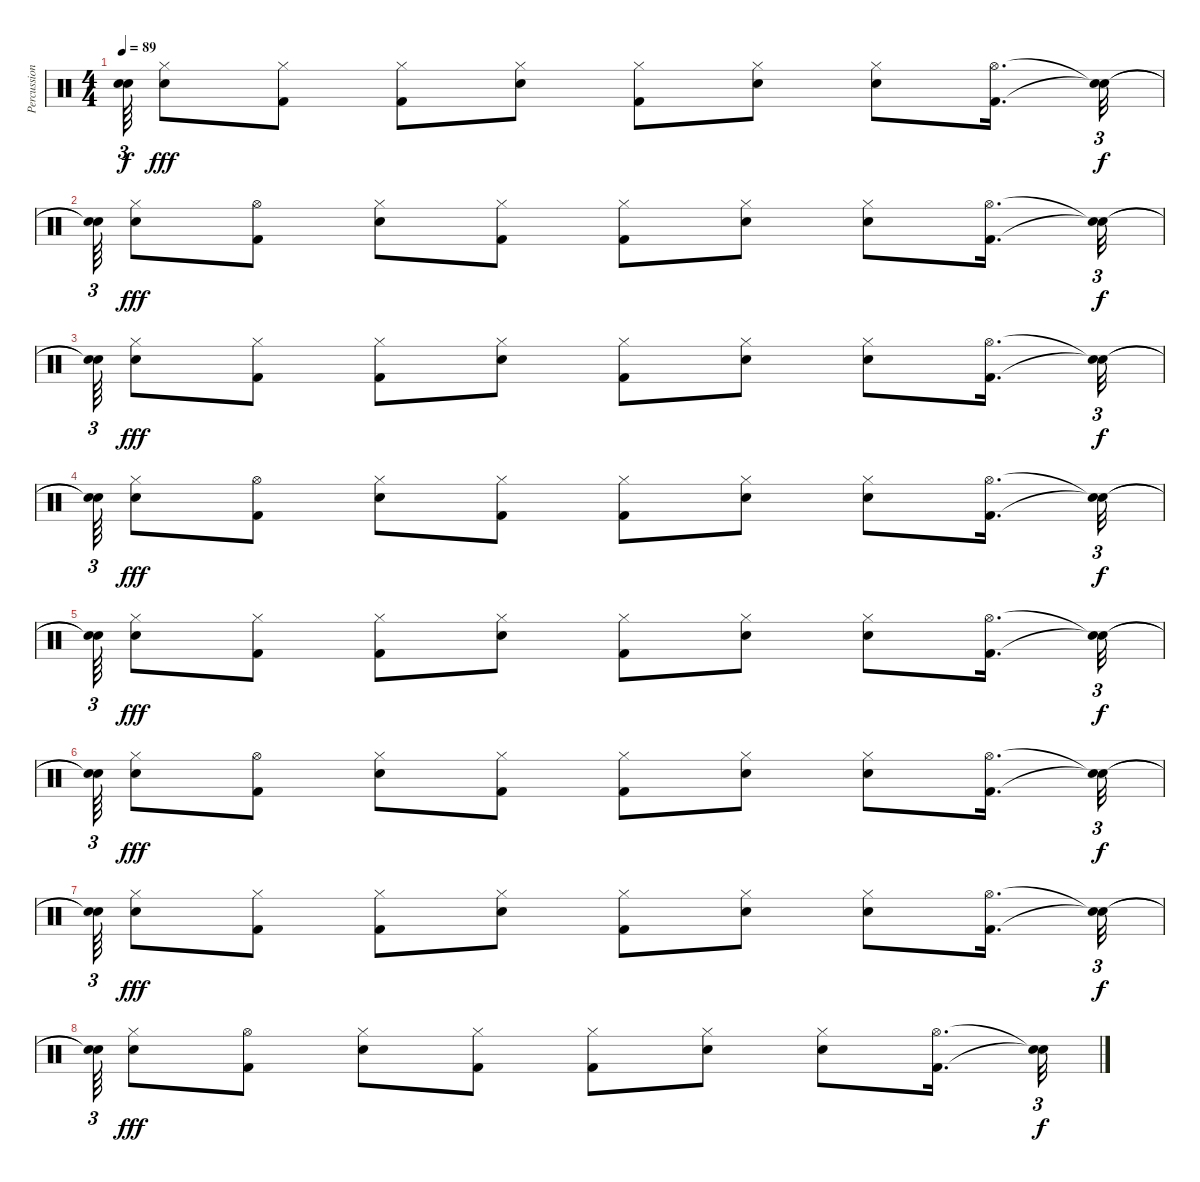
\track ("Percussioni" "Percussion") {instrument percussion}
\staff {score}
\articulation defaults
\ts (4 4)
\tempo 89
\clef neutral
\ks c
("Snare (hit)"{t} "Snare (hit)"{t}).64{tu (3 2) dy f} ("Hi-Hat (closed)" "Snare (hit) 2").8{dy fff} ("Hi-Hat (closed)" "Kick (hit) 2").8 ("Hi-Hat (closed)" "Kick (hit) 2").8 ("Hi-Hat (closed)" "Snare (hit) 2").8 ("Hi-Hat (closed)" "Kick (hit) 2").8 ("Hi-Hat (closed)" "Snare (hit) 2").8 ("Hi-Hat (closed)" "Snare (hit) 2").8 ("Hi-Hat (open)" "Kick (hit) 2").16{d} ("Snare (hit)"{t} "Snare (hit)"{t}).32{tu (3 2) dy f} |
("Snare (hit)"{t} "Snare (hit)"{t}).64{tu (3 2)} ("Hi-Hat (closed)" "Snare (hit) 2").8{dy fff} ("Hi-Hat (open)" "Kick (hit) 2").8 ("Hi-Hat (closed)" "Snare (hit) 2").8 ("Hi-Hat (closed)" "Kick (hit) 2").8 ("Hi-Hat (closed)" "Kick (hit) 2").8 ("Hi-Hat (closed)" "Snare (hit) 2").8 ("Hi-Hat (closed)" "Snare (hit) 2").8 ("Hi-Hat (open)" "Kick (hit) 2").16{d} ("Snare (hit)"{t} "Snare (hit)"{t}).32{tu (3 2) dy f} |
("Snare (hit)"{t} "Snare (hit)"{t}).64{tu (3 2)} ("Hi-Hat (closed)" "Snare (hit) 2").8{dy fff} ("Hi-Hat (closed)" "Kick (hit) 2").8 ("Hi-Hat (closed)" "Kick (hit) 2").8 ("Hi-Hat (closed)" "Snare (hit) 2").8 ("Hi-Hat (closed)" "Kick (hit) 2").8 ("Hi-Hat (closed)" "Snare (hit) 2").8 ("Hi-Hat (closed)" "Snare (hit) 2").8 ("Hi-Hat (open)" "Kick (hit) 2").16{d} ("Snare (hit)"{t} "Snare (hit)"{t}).32{tu (3 2) dy f} |
("Snare (hit)"{t} "Snare (hit)"{t}).64{tu (3 2)} ("Hi-Hat (closed)" "Snare (hit) 2").8{dy fff} ("Hi-Hat (open)" "Kick (hit) 2").8 ("Hi-Hat (closed)" "Snare (hit) 2").8 ("Hi-Hat (closed)" "Kick (hit) 2").8 ("Hi-Hat (closed)" "Kick (hit) 2").8 ("Hi-Hat (closed)" "Snare (hit) 2").8 ("Hi-Hat (closed)" "Snare (hit) 2").8 ("Hi-Hat (open)" "Kick (hit) 2").16{d} ("Snare (hit)"{t} "Snare (hit)"{t}).32{tu (3 2) dy f} |
("Snare (hit)"{t} "Snare (hit)"{t}).64{tu (3 2)} ("Hi-Hat (closed)" "Snare (hit) 2").8{dy fff} ("Hi-Hat (closed)" "Kick (hit) 2").8 ("Hi-Hat (closed)" "Kick (hit) 2").8 ("Hi-Hat (closed)" "Snare (hit) 2").8 ("Hi-Hat (closed)" "Kick (hit) 2").8 ("Hi-Hat (closed)" "Snare (hit) 2").8 ("Hi-Hat (closed)" "Snare (hit) 2").8 ("Hi-Hat (open)" "Kick (hit) 2").16{d} ("Snare (hit)"{t} "Snare (hit)"{t}).32{tu (3 2) dy f} |
("Snare (hit)"{t} "Snare (hit)"{t}).64{tu (3 2)} ("Hi-Hat (closed)" "Snare (hit) 2").8{dy fff} ("Hi-Hat (open)" "Kick (hit) 2").8 ("Hi-Hat (closed)" "Snare (hit) 2").8 ("Hi-Hat (closed)" "Kick (hit) 2").8 ("Hi-Hat (closed)" "Kick (hit) 2").8 ("Hi-Hat (closed)" "Snare (hit) 2").8 ("Hi-Hat (closed)" "Snare (hit) 2").8 ("Hi-Hat (open)" "Kick (hit) 2").16{d} ("Snare (hit)"{t} "Snare (hit)"{t}).32{tu (3 2) dy f} |
("Snare (hit)"{t} "Snare (hit)"{t}).64{tu (3 2)} ("Hi-Hat (closed)" "Snare (hit) 2").8{dy fff} ("Hi-Hat (closed)" "Kick (hit) 2").8 ("Hi-Hat (closed)" "Kick (hit) 2").8 ("Hi-Hat (closed)" "Snare (hit) 2").8 ("Hi-Hat (closed)" "Kick (hit) 2").8 ("Hi-Hat (closed)" "Snare (hit) 2").8 ("Hi-Hat (closed)" "Snare (hit) 2").8 ("Hi-Hat (open)" "Kick (hit) 2").16{d} ("Snare (hit)"{t} "Snare (hit)"{t}).32{tu (3 2) dy f} |
("Snare (hit)"{t} "Snare (hit)"{t}).64{tu (3 2)} ("Hi-Hat (closed)" "Snare (hit) 2").8{dy fff} ("Hi-Hat (open)" "Kick (hit) 2").8 ("Hi-Hat (closed)" "Snare (hit) 2").8 ("Hi-Hat (closed)" "Kick (hit) 2").8 ("Hi-Hat (closed)" "Kick (hit) 2").8 ("Hi-Hat (closed)" "Snare (hit) 2").8 ("Hi-Hat (closed)" "Snare (hit) 2").8 ("Hi-Hat (open)" "Kick (hit) 2").16{d} ("Snare (hit)"{t} "Snare (hit)"{t}).32{tu (3 2) dy f}
